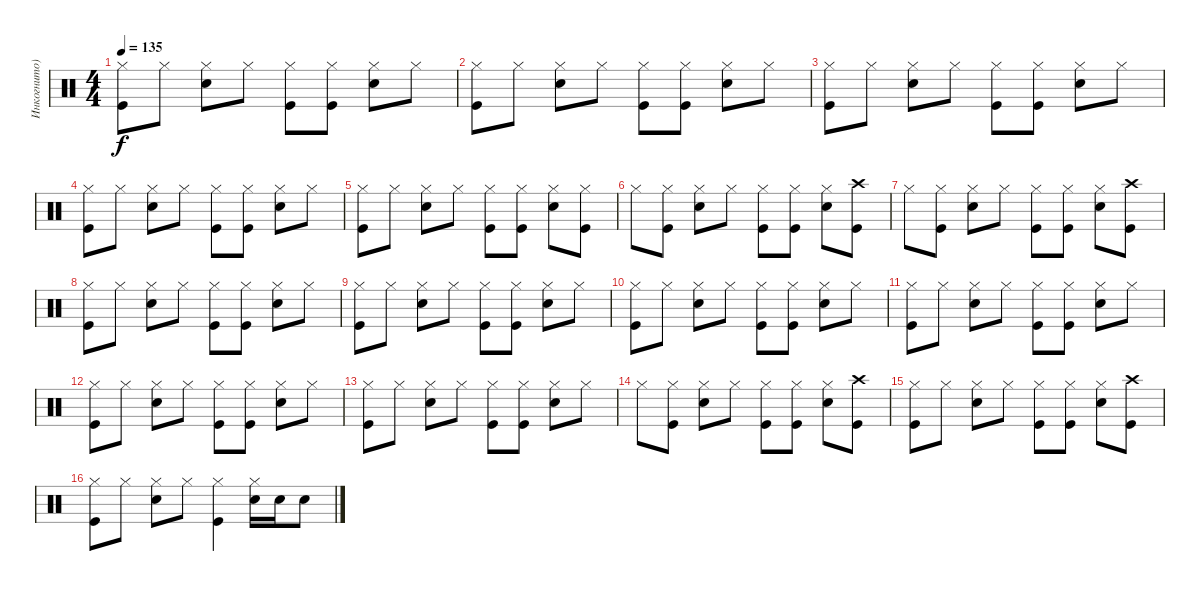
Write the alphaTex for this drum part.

\track ("Инкогнито)" "Инкогнито)") {instrument percussion}
\staff {score}
\articulation defaults
\ts (4 4)
\tempo 135
\clef neutral
\ks c
("Hi-Hat (closed)" "Kick (hit)").8{dy f} "Hi-Hat (closed)".8 ("Hi-Hat (closed)" "Snare (hit) 2").8 "Hi-Hat (closed)".8 ("Hi-Hat (closed)" "Kick (hit)").8 ("Hi-Hat (closed)" "Kick (hit)").8 ("Hi-Hat (closed)" "Snare (hit) 2").8 "Hi-Hat (closed)".8 |
("Hi-Hat (closed)" "Kick (hit)").8 "Hi-Hat (closed)".8 ("Hi-Hat (closed)" "Snare (hit) 2").8 "Hi-Hat (closed)".8 ("Hi-Hat (closed)" "Kick (hit)").8 ("Hi-Hat (closed)" "Kick (hit)").8 ("Hi-Hat (closed)" "Snare (hit) 2").8 "Hi-Hat (closed)".8 |
("Hi-Hat (closed)" "Kick (hit)").8 "Hi-Hat (closed)".8 ("Hi-Hat (closed)" "Snare (hit) 2").8 "Hi-Hat (closed)".8 ("Hi-Hat (closed)" "Kick (hit)").8 ("Hi-Hat (closed)" "Kick (hit)").8 ("Hi-Hat (closed)" "Snare (hit) 2").8 "Hi-Hat (closed)".8 |
("Hi-Hat (closed)" "Kick (hit)").8 "Hi-Hat (closed)".8 ("Hi-Hat (closed)" "Snare (hit) 2").8 "Hi-Hat (closed)".8 ("Hi-Hat (closed)" "Kick (hit)").8 ("Hi-Hat (closed)" "Kick (hit)").8 ("Hi-Hat (closed)" "Snare (hit) 2").8 "Hi-Hat (closed)".8 |
("Hi-Hat (closed)" "Kick (hit)").8 "Hi-Hat (closed)".8 ("Hi-Hat (closed)" "Snare (hit) 2").8 "Hi-Hat (closed)".8 ("Hi-Hat (closed)" "Kick (hit)").8 ("Hi-Hat (closed)" "Kick (hit)").8 ("Hi-Hat (closed)" "Snare (hit) 2").8 ("Hi-Hat (closed)" "Kick (hit)").8 |
"Hi-Hat (closed)".8 ("Hi-Hat (closed)" "Kick (hit)").8 ("Hi-Hat (closed)" "Snare (hit) 2").8 "Hi-Hat (closed)".8 ("Hi-Hat (closed)" "Kick (hit)").8 ("Hi-Hat (closed)" "Kick (hit)").8 ("Hi-Hat (closed)" "Snare (hit) 2").8 ("Crash high (hit)" "Kick (hit)").8 |
"Hi-Hat (closed)".8 ("Hi-Hat (closed)" "Kick (hit)").8 ("Hi-Hat (closed)" "Snare (hit) 2").8 "Hi-Hat (closed)".8 ("Hi-Hat (closed)" "Kick (hit)").8 ("Hi-Hat (closed)" "Kick (hit)").8 ("Hi-Hat (closed)" "Snare (hit) 2").8 ("Crash high (hit)" "Kick (hit)").8 |
("Hi-Hat (closed)" "Kick (hit)").8 "Hi-Hat (closed)".8 ("Hi-Hat (closed)" "Snare (hit) 2").8 "Hi-Hat (closed)".8 ("Hi-Hat (closed)" "Kick (hit)").8 ("Hi-Hat (closed)" "Kick (hit)").8 ("Hi-Hat (closed)" "Snare (hit) 2").8 "Hi-Hat (closed)".8 |
("Hi-Hat (closed)" "Kick (hit)").8 "Hi-Hat (closed)".8 ("Hi-Hat (closed)" "Snare (hit) 2").8 "Hi-Hat (closed)".8 ("Hi-Hat (closed)" "Kick (hit)").8 ("Hi-Hat (closed)" "Kick (hit)").8 ("Hi-Hat (closed)" "Snare (hit) 2").8 "Hi-Hat (closed)".8 |
("Hi-Hat (closed)" "Kick (hit)").8 "Hi-Hat (closed)".8 ("Hi-Hat (closed)" "Snare (hit) 2").8 "Hi-Hat (closed)".8 ("Hi-Hat (closed)" "Kick (hit)").8 ("Hi-Hat (closed)" "Kick (hit)").8 ("Hi-Hat (closed)" "Snare (hit) 2").8 "Hi-Hat (closed)".8 |
("Hi-Hat (closed)" "Kick (hit)").8 "Hi-Hat (closed)".8 ("Hi-Hat (closed)" "Snare (hit) 2").8 "Hi-Hat (closed)".8 ("Hi-Hat (closed)" "Kick (hit)").8 ("Hi-Hat (closed)" "Kick (hit)").8 ("Hi-Hat (closed)" "Snare (hit) 2").8 "Hi-Hat (closed)".8 |
("Hi-Hat (closed)" "Kick (hit)").8 "Hi-Hat (closed)".8 ("Hi-Hat (closed)" "Snare (hit) 2").8 "Hi-Hat (closed)".8 ("Hi-Hat (closed)" "Kick (hit)").8 ("Hi-Hat (closed)" "Kick (hit)").8 ("Hi-Hat (closed)" "Snare (hit) 2").8 "Hi-Hat (closed)".8 |
("Hi-Hat (closed)" "Kick (hit)").8 "Hi-Hat (closed)".8 ("Hi-Hat (closed)" "Snare (hit) 2").8 "Hi-Hat (closed)".8 ("Hi-Hat (closed)" "Kick (hit)").8 ("Hi-Hat (closed)" "Kick (hit)").8 ("Hi-Hat (closed)" "Snare (hit) 2").8 "Hi-Hat (closed)".8 |
"Hi-Hat (closed)".8 ("Hi-Hat (closed)" "Kick (hit)").8 ("Hi-Hat (closed)" "Snare (hit) 2").8 "Hi-Hat (closed)".8 ("Hi-Hat (closed)" "Kick (hit)").8 ("Hi-Hat (closed)" "Kick (hit)").8 ("Hi-Hat (closed)" "Snare (hit) 2").8 ("Crash high (hit)" "Kick (hit)").8 |
("Hi-Hat (closed)" "Kick (hit)").8 "Hi-Hat (closed)".8 ("Hi-Hat (closed)" "Snare (hit) 2").8 "Hi-Hat (closed)".8 ("Hi-Hat (closed)" "Kick (hit)").8 ("Hi-Hat (closed)" "Kick (hit)").8 ("Hi-Hat (closed)" "Snare (hit) 2").8 ("Crash high (hit)" "Kick (hit)").8 |
("Hi-Hat (closed)" "Kick (hit)").8 "Hi-Hat (closed)".8 ("Hi-Hat (closed)" "Snare (hit) 2").8 "Hi-Hat (closed)".8 ("Hi-Hat (closed)" "Kick (hit)").4 ("Hi-Hat (closed)" "Snare (hit) 2").16 "Snare (hit) 2".16 "Snare (hit) 2".8
